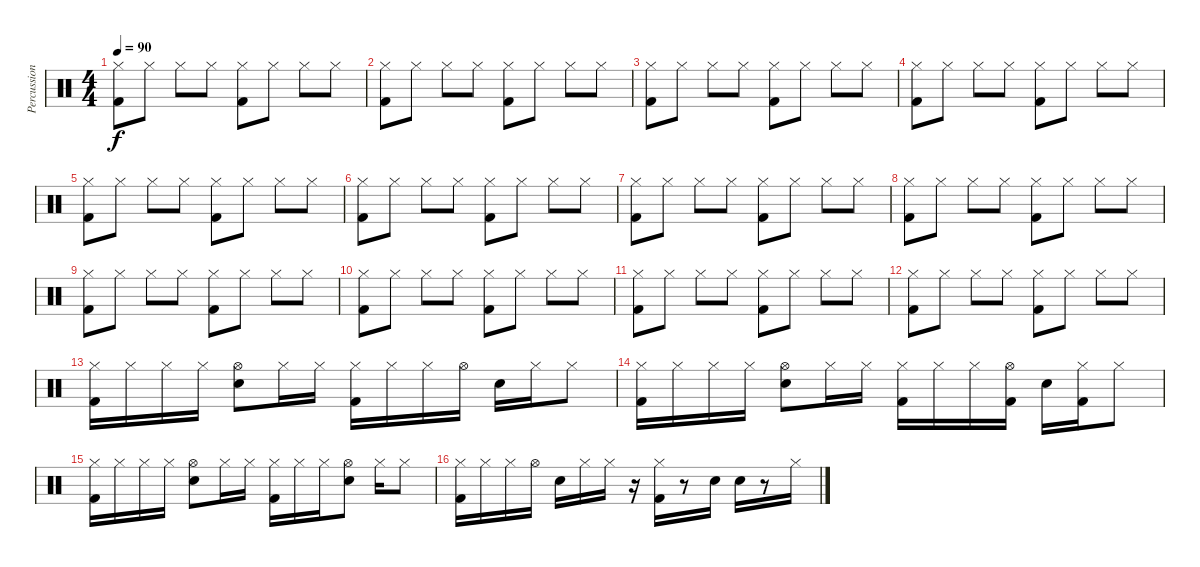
\track ("Percussion" "Percussion") {instrument percussion}
\staff {score}
\articulation defaults
\ts (4 4)
\tempo 90
\clef neutral
\ks c
("Hi-Hat (closed)" "Kick (hit) 2").8{dy f} "Hi-Hat (closed)".8 "Hi-Hat (closed)".8 "Hi-Hat (closed)".8 ("Hi-Hat (closed)" "Kick (hit) 2").8 "Hi-Hat (closed)".8 "Hi-Hat (closed)".8 "Hi-Hat (closed)".8 |
("Hi-Hat (closed)" "Kick (hit) 2").8 "Hi-Hat (closed)".8 "Hi-Hat (closed)".8 "Hi-Hat (closed)".8 ("Hi-Hat (closed)" "Kick (hit) 2").8 "Hi-Hat (closed)".8 "Hi-Hat (closed)".8 "Hi-Hat (closed)".8 |
("Hi-Hat (closed)" "Kick (hit) 2").8 "Hi-Hat (closed)".8 "Hi-Hat (closed)".8 "Hi-Hat (closed)".8 ("Hi-Hat (closed)" "Kick (hit) 2").8 "Hi-Hat (closed)".8 "Hi-Hat (closed)".8 "Hi-Hat (closed)".8 |
("Hi-Hat (closed)" "Kick (hit) 2").8 "Hi-Hat (closed)".8 "Hi-Hat (closed)".8 "Hi-Hat (closed)".8 ("Hi-Hat (closed)" "Kick (hit) 2").8 "Hi-Hat (closed)".8 "Hi-Hat (closed)".8 "Hi-Hat (closed)".8 |
("Hi-Hat (closed)" "Kick (hit) 2").8 "Hi-Hat (closed)".8 "Hi-Hat (closed)".8 "Hi-Hat (closed)".8 ("Hi-Hat (closed)" "Kick (hit) 2").8 "Hi-Hat (closed)".8 "Hi-Hat (closed)".8 "Hi-Hat (closed)".8 |
("Hi-Hat (closed)" "Kick (hit) 2").8 "Hi-Hat (closed)".8 "Hi-Hat (closed)".8 "Hi-Hat (closed)".8 ("Hi-Hat (closed)" "Kick (hit) 2").8 "Hi-Hat (closed)".8 "Hi-Hat (closed)".8 "Hi-Hat (closed)".8 |
("Hi-Hat (closed)" "Kick (hit) 2").8 "Hi-Hat (closed)".8 "Hi-Hat (closed)".8 "Hi-Hat (closed)".8 ("Hi-Hat (closed)" "Kick (hit) 2").8 "Hi-Hat (closed)".8 "Hi-Hat (closed)".8 "Hi-Hat (closed)".8 |
("Hi-Hat (closed)" "Kick (hit) 2").8 "Hi-Hat (closed)".8 "Hi-Hat (closed)".8 "Hi-Hat (closed)".8 ("Hi-Hat (closed)" "Kick (hit) 2").8 "Hi-Hat (closed)".8 "Hi-Hat (closed)".8 "Hi-Hat (closed)".8 |
("Hi-Hat (closed)" "Kick (hit) 2").8 "Hi-Hat (closed)".8 "Hi-Hat (closed)".8 "Hi-Hat (closed)".8 ("Hi-Hat (closed)" "Kick (hit) 2").8 "Hi-Hat (closed)".8 "Hi-Hat (closed)".8 "Hi-Hat (closed)".8 |
("Hi-Hat (closed)" "Kick (hit) 2").8 "Hi-Hat (closed)".8 "Hi-Hat (closed)".8 "Hi-Hat (closed)".8 ("Hi-Hat (closed)" "Kick (hit) 2").8 "Hi-Hat (closed)".8 "Hi-Hat (closed)".8 "Hi-Hat (closed)".8 |
("Hi-Hat (closed)" "Kick (hit) 2").8 "Hi-Hat (closed)".8 "Hi-Hat (closed)".8 "Hi-Hat (closed)".8 ("Hi-Hat (closed)" "Kick (hit) 2").8 "Hi-Hat (closed)".8 "Hi-Hat (closed)".8 "Hi-Hat (closed)".8 |
("Hi-Hat (closed)" "Kick (hit) 2").8 "Hi-Hat (closed)".8 "Hi-Hat (closed)".8 "Hi-Hat (closed)".8 ("Hi-Hat (closed)" "Kick (hit) 2").8 "Hi-Hat (closed)".8 "Hi-Hat (closed)".8 "Hi-Hat (closed)".8 |
("Hi-Hat (closed)" "Kick (hit) 2").16 "Hi-Hat (closed)".16 "Hi-Hat (closed)".16 "Hi-Hat (closed)".16 ("Hi-Hat (open)" "Electric Snare (hit)").8 "Hi-Hat (closed)".16 "Hi-Hat (closed)".16 ("Hi-Hat (closed)" "Kick (hit) 2").16 "Hi-Hat (closed)".16 "Hi-Hat (closed)".16 "Hi-Hat (open)".16 "Electric Snare (hit)".16 "Hi-Hat (closed)".16 "Hi-Hat (closed)".8 |
("Hi-Hat (closed)" "Kick (hit) 2").16 "Hi-Hat (closed)".16 "Hi-Hat (closed)".16 "Hi-Hat (closed)".16 ("Hi-Hat (open)" "Electric Snare (hit)").8 "Hi-Hat (closed)".16 "Hi-Hat (closed)".16 ("Hi-Hat (closed)" "Kick (hit) 2").16 "Hi-Hat (closed)".16 "Hi-Hat (closed)".16 ("Hi-Hat (open)" "Kick (hit) 2").16 "Electric Snare (hit)".16 ("Hi-Hat (closed)" "Kick (hit) 2").16 "Hi-Hat (closed)".8 |
("Hi-Hat (closed)" "Kick (hit) 2").16 "Hi-Hat (closed)".16 "Hi-Hat (closed)".16 "Hi-Hat (closed)".16 ("Hi-Hat (open)" "Electric Snare (hit)").8 "Hi-Hat (closed)".16 "Hi-Hat (closed)".16 ("Hi-Hat (closed)" "Kick (hit) 2").16 "Hi-Hat (closed)".16 "Hi-Hat (closed)".16 ("Hi-Hat (open)" "Electric Snare (hit)").8 "Hi-Hat (closed)".16 "Hi-Hat (closed)".8 |
("Hi-Hat (closed)" "Kick (hit) 2").16 "Hi-Hat (closed)".16 "Hi-Hat (closed)".16 "Hi-Hat (open)".16 "Electric Snare (hit)".16 "Hi-Hat (closed)".16 "Hi-Hat (closed)".16 r.16 ("Hi-Hat (closed)" "Kick (hit) 2").16 r.8 "Electric Snare (hit)".16 "Electric Snare (hit)".16 r.8 "Hi-Hat (closed)".16
